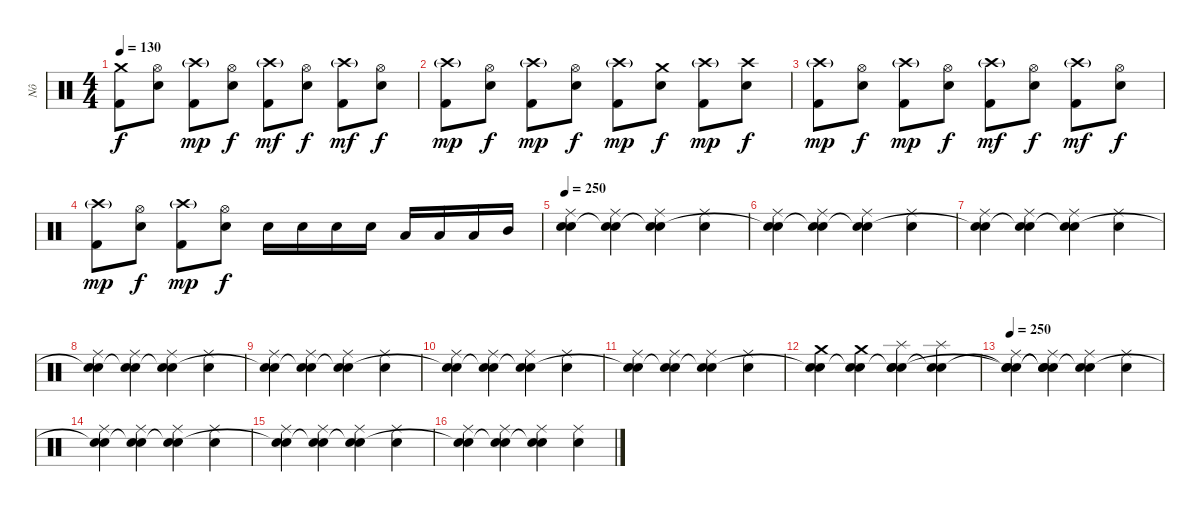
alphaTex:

\track ("Nô" "Nô") {instrument percussion}
\staff {score}
\articulation defaults
\ts (4 4)
\tempo 130
\clef neutral
\ks c
("Crash medium (hit)" "Kick (hit) 2").8{dy f} ("Hi-Hat (open)" "Electric Snare (hit)").8 ("Crash high (hit)"{g} "Kick (hit) 2").8{dy mp} ("Hi-Hat (open)" "Electric Snare (hit)").8{dy f} ("Crash high (hit)"{g} "Kick (hit) 2").8{dy mf} ("Hi-Hat (open)" "Electric Snare (hit)").8{dy f} ("Crash high (hit)"{g} "Kick (hit) 2").8{dy mf} ("Hi-Hat (open)" "Electric Snare (hit)").8{dy f} |
("Crash high (hit)"{g} "Kick (hit) 2").8{dy mp} ("Hi-Hat (open)" "Electric Snare (hit)").8{dy f} ("Crash high (hit)"{g} "Kick (hit) 2").8{dy mp} ("Hi-Hat (open)" "Electric Snare (hit)").8{dy f} ("Crash high (hit)"{g} "Kick (hit) 2").8{dy mp} ("Crash medium (hit)" "Electric Snare (hit)").8{dy f} ("Crash high (hit)"{g} "Kick (hit) 2").8{dy mp} ("Crash high (hit)" "Electric Snare (hit)").8{dy f} |
("Crash high (hit)"{g} "Kick (hit) 2").8{dy mp} ("Hi-Hat (open)" "Electric Snare (hit)").8{dy f} ("Crash high (hit)"{g} "Kick (hit) 2").8{dy mp} ("Hi-Hat (open)" "Electric Snare (hit)").8{dy f} ("Crash high (hit)"{g} "Kick (hit) 2").8{dy mf} ("Hi-Hat (open)" "Electric Snare (hit)").8{dy f} ("Crash high (hit)"{g} "Kick (hit) 2").8{dy mf} ("Hi-Hat (open)" "Electric Snare (hit)").8{dy f} |
("Crash high (hit)"{g} "Kick (hit) 2").8{dy mp} ("Hi-Hat (open)" "Electric Snare (hit)").8{dy f} ("Crash high (hit)"{g} "Kick (hit) 2").8{dy mp} ("Hi-Hat (open)" "Electric Snare (hit)").8{dy f} "Electric Snare (hit)".16 "Electric Snare (hit)".16 "Electric Snare (hit)".16 "Electric Snare (hit)".16 "Low Tom (hit)".16 "Low Tom (hit)".16 "Low Tom (hit)".16 "Mid Tom (hit)".16 |
\tempo 250
("Ride (middle)" "Electric Snare (hit)" "Snare (hit)").4 ("Ride (middle)" "Electric Snare (hit)" "Snare (hit)"{t}).4 ("Ride (middle)" "Electric Snare (hit)" "Snare (hit)"{t}).4 ("Ride (middle)" "Electric Snare (hit)").4 |
("Ride (middle)" "Electric Snare (hit)" "Snare (hit)"{t}).4 ("Ride (middle)" "Electric Snare (hit)" "Snare (hit)"{t}).4 ("Ride (middle)" "Electric Snare (hit)" "Snare (hit)"{t}).4 ("Ride (middle)" "Electric Snare (hit)").4 |
("Ride (middle)" "Electric Snare (hit)" "Snare (hit)"{t}).4 ("Ride (middle)" "Electric Snare (hit)" "Snare (hit)"{t}).4 ("Ride (middle)" "Electric Snare (hit)" "Snare (hit)"{t}).4 ("Ride (middle)" "Electric Snare (hit)").4 |
("Ride (middle)" "Electric Snare (hit)" "Snare (hit)"{t}).4 ("Ride (middle)" "Electric Snare (hit)" "Snare (hit)"{t}).4 ("Ride (middle)" "Electric Snare (hit)" "Snare (hit)"{t}).4 ("Ride (middle)" "Electric Snare (hit)").4 |
("Ride (middle)" "Electric Snare (hit)" "Snare (hit)"{t}).4 ("Ride (middle)" "Electric Snare (hit)" "Snare (hit)"{t}).4 ("Ride (middle)" "Electric Snare (hit)" "Snare (hit)"{t}).4 ("Ride (middle)" "Electric Snare (hit)").4 |
("Ride (middle)" "Electric Snare (hit)" "Snare (hit)"{t}).4 ("Ride (middle)" "Electric Snare (hit)" "Snare (hit)"{t}).4 ("Ride (middle)" "Electric Snare (hit)" "Snare (hit)"{t}).4 ("Ride (middle)" "Electric Snare (hit)").4 |
("Ride (middle)" "Electric Snare (hit)" "Snare (hit)"{t}).4 ("Ride (middle)" "Electric Snare (hit)" "Snare (hit)"{t}).4 ("Ride (middle)" "Electric Snare (hit)" "Snare (hit)"{t}).4 ("Ride (middle)" "Electric Snare (hit)").4 |
("Crash medium (hit)" "Electric Snare (hit)" "Snare (hit)"{t}).4 ("Crash medium (hit)" "Electric Snare (hit)" "Snare (hit)"{t}).4 ("Splash (hit)" "Snare (hit)"{t} "Electric Snare (hit)" "Snare (hit)").4 ("Splash (hit)" "Snare (hit)"{t} "Electric Snare (hit)").4 |
\tempo 250
("Ride (middle)" "Snare (hit)"{t} "Electric Snare (hit)" "Snare (hit)"{t}).4 ("Ride (middle)" "Snare (hit)"{t} "Electric Snare (hit)" "Snare (hit)"{t}).4 ("Ride (middle)" "Electric Snare (hit)" "Snare (hit)"{t}).4 ("Ride (middle)" "Electric Snare (hit)").4 |
("Ride (middle)" "Electric Snare (hit)" "Snare (hit)"{t}).4 ("Ride (middle)" "Electric Snare (hit)" "Snare (hit)"{t}).4 ("Ride (middle)" "Electric Snare (hit)" "Snare (hit)"{t}).4 ("Ride (middle)" "Electric Snare (hit)").4 |
("Ride (middle)" "Electric Snare (hit)" "Snare (hit)"{t}).4 ("Ride (middle)" "Electric Snare (hit)" "Snare (hit)"{t}).4 ("Ride (middle)" "Electric Snare (hit)" "Snare (hit)"{t}).4 ("Ride (middle)" "Electric Snare (hit)").4 |
("Ride (middle)" "Electric Snare (hit)" "Snare (hit)"{t}).4 ("Ride (middle)" "Electric Snare (hit)" "Snare (hit)"{t}).4 ("Ride (middle)" "Electric Snare (hit)" "Snare (hit)"{t}).4 ("Ride (middle)" "Electric Snare (hit)").4
